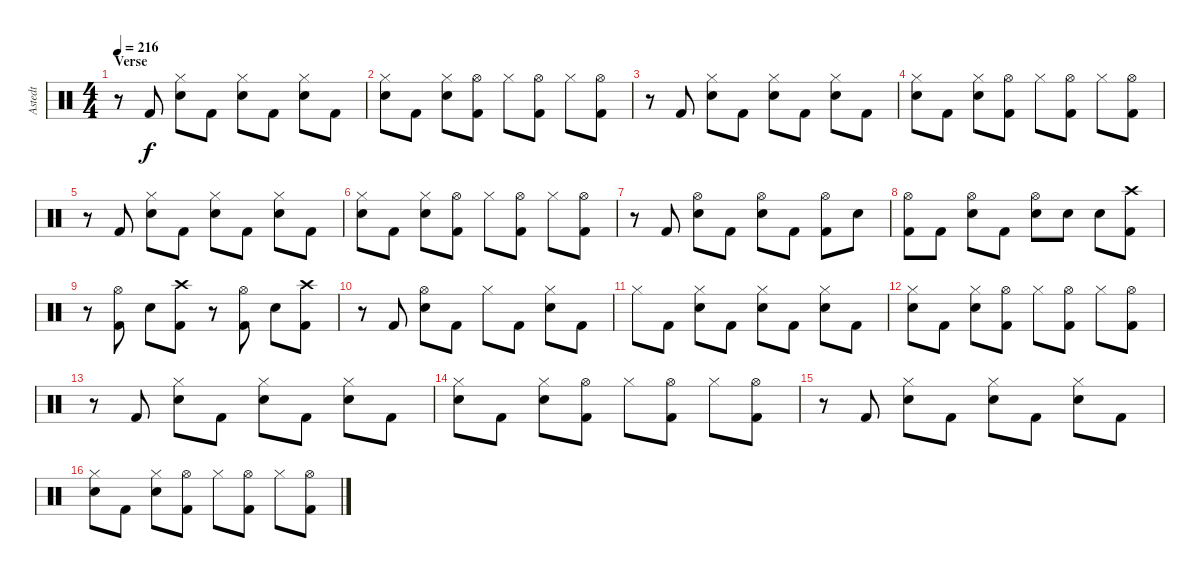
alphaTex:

\track ("Astedt" "Astedt") {instrument percussion}
\staff {score}
\articulation defaults
\ts (4 4)
\section ("" "Verse")
\tempo 216
\clef neutral
\ks c
r.8{dy f} "Kick (hit) 2".8 ("Hi-Hat (closed)" "Snare (hit) 2").8 "Kick (hit) 2".8 ("Hi-Hat (closed)" "Snare (hit) 2").8 "Kick (hit) 2".8 ("Hi-Hat (closed)" "Snare (hit) 2").8 "Kick (hit) 2".8 |
("Hi-Hat (closed)" "Snare (hit) 2").8 "Kick (hit) 2".8 ("Hi-Hat (closed)" "Snare (hit) 2").8 ("Hi-Hat (open)" "Kick (hit) 2").8 "Hi-Hat (closed)".8 ("Hi-Hat (open)" "Kick (hit) 2").8 "Hi-Hat (closed)".8 ("Hi-Hat (open)" "Kick (hit) 2").8 |
r.8 "Kick (hit) 2".8 ("Hi-Hat (closed)" "Snare (hit) 2").8 "Kick (hit) 2".8 ("Hi-Hat (closed)" "Snare (hit) 2").8 "Kick (hit) 2".8 ("Hi-Hat (closed)" "Snare (hit) 2").8 "Kick (hit) 2".8 |
("Hi-Hat (closed)" "Snare (hit) 2").8 "Kick (hit) 2".8 ("Hi-Hat (closed)" "Snare (hit) 2").8 ("Hi-Hat (open)" "Kick (hit) 2").8 "Hi-Hat (closed)".8 ("Hi-Hat (open)" "Kick (hit) 2").8 "Hi-Hat (closed)".8 ("Hi-Hat (open)" "Kick (hit) 2").8 |
r.8 "Kick (hit) 2".8 ("Hi-Hat (closed)" "Snare (hit) 2").8 "Kick (hit) 2".8 ("Hi-Hat (closed)" "Snare (hit) 2").8 "Kick (hit) 2".8 ("Hi-Hat (closed)" "Snare (hit) 2").8 "Kick (hit) 2".8 |
("Hi-Hat (closed)" "Snare (hit) 2").8 "Kick (hit) 2".8 ("Hi-Hat (closed)" "Snare (hit) 2").8 ("Hi-Hat (open)" "Kick (hit) 2").8 "Hi-Hat (closed)".8 ("Hi-Hat (open)" "Kick (hit) 2").8 "Hi-Hat (closed)".8 ("Hi-Hat (open)" "Kick (hit) 2").8 |
r.8 "Kick (hit) 2".8 ("Hi-Hat (open)" "Snare (hit) 2").8 "Kick (hit) 2".8 ("Hi-Hat (open)" "Snare (hit) 2").8 "Kick (hit) 2".8 ("Hi-Hat (open)" "Kick (hit) 2").8 "Snare (hit) 2".8 |
("Hi-Hat (open)" "Kick (hit) 2").8 "Kick (hit) 2".8 ("Hi-Hat (open)" "Snare (hit) 2").8 "Kick (hit) 2".8 ("Hi-Hat (open)" "Snare (hit) 2").8 "Snare (hit) 2".8 "Snare (hit) 2".8 ("Crash high (hit)" "Kick (hit) 2").8 |
r.8 ("Hi-Hat (open)" "Kick (hit) 2").8 "Snare (hit) 2".8 ("Crash high (hit)" "Kick (hit) 2").8 r.8 ("Hi-Hat (open)" "Kick (hit) 2").8 "Snare (hit) 2".8 ("Crash high (hit)" "Kick (hit) 2").8 |
r.8 "Kick (hit) 2".8 ("Hi-Hat (open)" "Snare (hit) 2").8 "Kick (hit) 2".8 "Hi-Hat (closed)".8 "Kick (hit) 2".8 ("Hi-Hat (closed)" "Snare (hit) 2").8 "Kick (hit) 2".8 |
"Hi-Hat (closed)".8 "Kick (hit) 2".8 ("Hi-Hat (closed)" "Snare (hit) 2").8 "Kick (hit) 2".8 ("Hi-Hat (closed)" "Snare (hit) 2").8 "Kick (hit) 2".8 ("Hi-Hat (closed)" "Snare (hit) 2").8 "Kick (hit) 2".8 |
("Hi-Hat (closed)" "Snare (hit) 2").8 "Kick (hit) 2".8 ("Hi-Hat (closed)" "Snare (hit) 2").8 ("Hi-Hat (open)" "Kick (hit) 2").8 "Hi-Hat (closed)".8 ("Hi-Hat (open)" "Kick (hit) 2").8 "Hi-Hat (closed)".8 ("Hi-Hat (open)" "Kick (hit) 2").8 |
r.8 "Kick (hit) 2".8 ("Hi-Hat (closed)" "Snare (hit) 2").8 "Kick (hit) 2".8 ("Hi-Hat (closed)" "Snare (hit) 2").8 "Kick (hit) 2".8 ("Hi-Hat (closed)" "Snare (hit) 2").8 "Kick (hit) 2".8 |
("Hi-Hat (closed)" "Snare (hit) 2").8 "Kick (hit) 2".8 ("Hi-Hat (closed)" "Snare (hit) 2").8 ("Hi-Hat (open)" "Kick (hit) 2").8 "Hi-Hat (closed)".8 ("Hi-Hat (open)" "Kick (hit) 2").8 "Hi-Hat (closed)".8 ("Hi-Hat (open)" "Kick (hit) 2").8 |
r.8 "Kick (hit) 2".8 ("Hi-Hat (closed)" "Snare (hit) 2").8 "Kick (hit) 2".8 ("Hi-Hat (closed)" "Snare (hit) 2").8 "Kick (hit) 2".8 ("Hi-Hat (closed)" "Snare (hit) 2").8 "Kick (hit) 2".8 |
("Hi-Hat (closed)" "Snare (hit) 2").8 "Kick (hit) 2".8 ("Hi-Hat (closed)" "Snare (hit) 2").8 ("Hi-Hat (open)" "Kick (hit) 2").8 "Hi-Hat (closed)".8 ("Hi-Hat (open)" "Kick (hit) 2").8 "Hi-Hat (closed)".8 ("Hi-Hat (open)" "Kick (hit) 2").8
